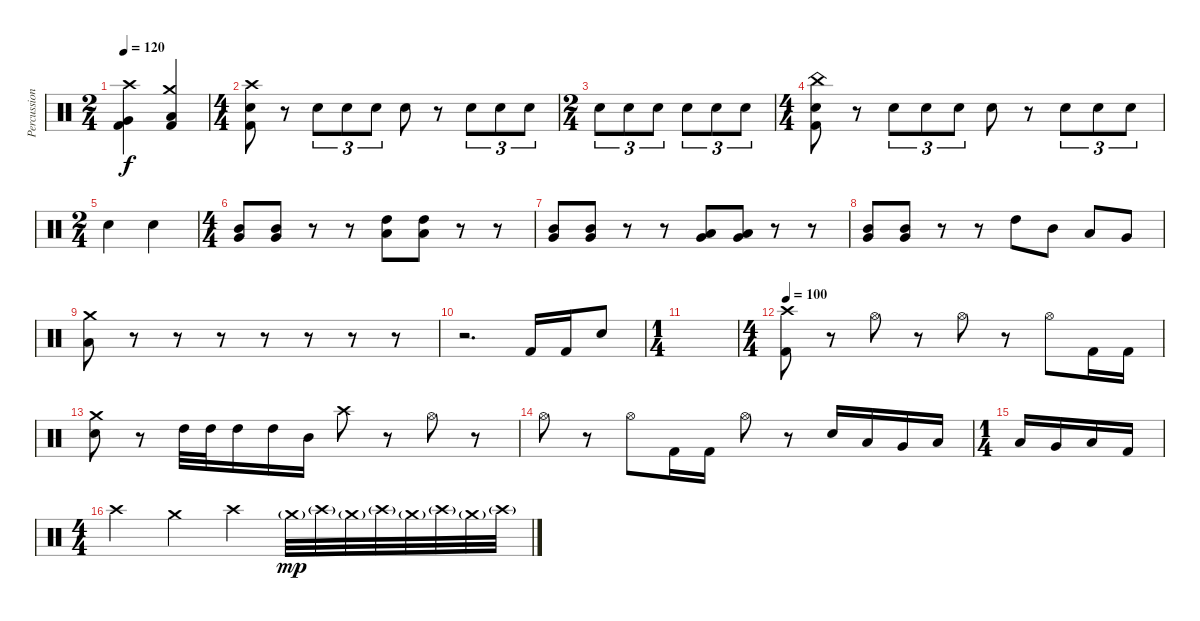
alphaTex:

\track ("Percussion" "Percussion") {instrument percussion}
\staff {score}
\articulation defaults
\ts (2 4)
\tempo 120
\clef neutral
\ks c
("Crash high (hit)" "Very Low Tom (hit)" "Kick (hit) 2").4{dy f} ("Crash medium (hit)" "Low Tom (hit)" "Kick (hit) 2").4 |
\ts (4 4)
("Crash high (hit)" "Snare (hit) 2" "Kick (hit) 2").8 r.8 "Snare (hit) 2".8{tu (3 2)} "Snare (hit) 2".8{tu (3 2)} "Snare (hit) 2".8{tu (3 2)} "Snare (hit) 2".8 r.8 "Snare (hit) 2".8{tu (3 2)} "Snare (hit) 2".8{tu (3 2)} "Snare (hit) 2".8{tu (3 2)} |
\ts (2 4)
"Snare (hit) 2".8{tu (3 2)} "Snare (hit) 2".8{tu (3 2)} "Snare (hit) 2".8{tu (3 2)} "Snare (hit) 2".8{tu (3 2)} "Snare (hit) 2".8{tu (3 2)} "Snare (hit) 2".8{tu (3 2)} |
\ts (4 4)
("China (hit)" "Snare (hit) 2" "Kick (hit) 2").8 r.8 "Snare (hit) 2".8{tu (3 2)} "Snare (hit) 2".8{tu (3 2)} "Snare (hit) 2".8{tu (3 2)} "Snare (hit) 2".8 r.8 "Snare (hit) 2".8{tu (3 2)} "Snare (hit) 2".8{tu (3 2)} "Snare (hit) 2".8{tu (3 2)} |
\ts (2 4)
"Snare (hit) 2".4 "Snare (hit) 2".4 |
\ts (4 4)
("Very Low Tom (hit)" "Mid Tom (hit)").8 ("Very Low Tom (hit)" "Mid Tom (hit)").8 r.8 r.8 ("Low Tom (hit)" "High Tom (hit)").8 ("Low Tom (hit)" "High Tom (hit)").8 r.8 r.8 |
("Very Low Tom (hit)" "Mid Tom (hit)").8 ("Very Low Tom (hit)" "Mid Tom (hit)").8 r.8 r.8 ("Low Floor Tom (hit)" "Very Low Tom (hit)").8 ("Low Floor Tom (hit)" "Very Low Tom (hit)").8 r.8 r.8 |
("Very Low Tom (hit)" "Mid Tom (hit)").8 ("Very Low Tom (hit)" "Mid Tom (hit)").8 r.8 r.8 "High Tom (hit)".8 "Mid Tom (hit)".8 "Low Tom (hit)".8 "Very Low Tom (hit)".8 |
("Crash medium (hit)" "Low Floor Tom (hit)").8 r.8 r.8 r.8 r.8 r.8 r.8 r.8 |
r.2{d} "Kick (hit) 2".16 "Kick (hit) 2".16 "Snare (hit) 2".8 |
\ts (1 4)
|
\ts (4 4)
\tempo 100
("Crash high (hit)" "Kick (hit) 2").8 r.8 "Hi-Hat (open)".8 r.8 "Hi-Hat (open)".8 r.8 "Hi-Hat (open)".8 "Kick (hit) 2".16 "Kick (hit) 2".16 |
("Crash medium (hit)" "Snare (hit) 2").8 r.8 "High Tom (hit)".32 "High Tom (hit)".32 "High Tom (hit)".16 "High Tom (hit)".16 "Mid Tom (hit)".16 "Crash high (hit)".8 r.8 "Hi-Hat (open)".8 r.8 |
"Hi-Hat (open)".8 r.8 "Hi-Hat (open)".8 "Kick (hit) 2".16 "Kick (hit) 2".16 "Hi-Hat (open)".8 r.8 "Snare (hit) 2".16 "Low Tom (hit)".16 "Very Low Tom (hit)".16 "Low Floor Tom (hit)".16 |
\ts (1 4)
"Low Tom (hit)".16 "Very Low Tom (hit)".16 "Low Floor Tom (hit)".16 "Kick (hit) 2".16 |
\ts (4 4)
"Crash high (hit)".4 "Crash medium (hit)".4 "Crash high (hit)".4 "Crash medium (hit)"{g}.32{dy mp} "Crash high (hit)"{g}.32 "Crash medium (hit)"{g}.32 "Crash high (hit)"{g}.32 "Crash medium (hit)"{g}.32 "Crash high (hit)"{g}.32 "Crash medium (hit)"{g}.32 "Crash high (hit)"{g}.32
